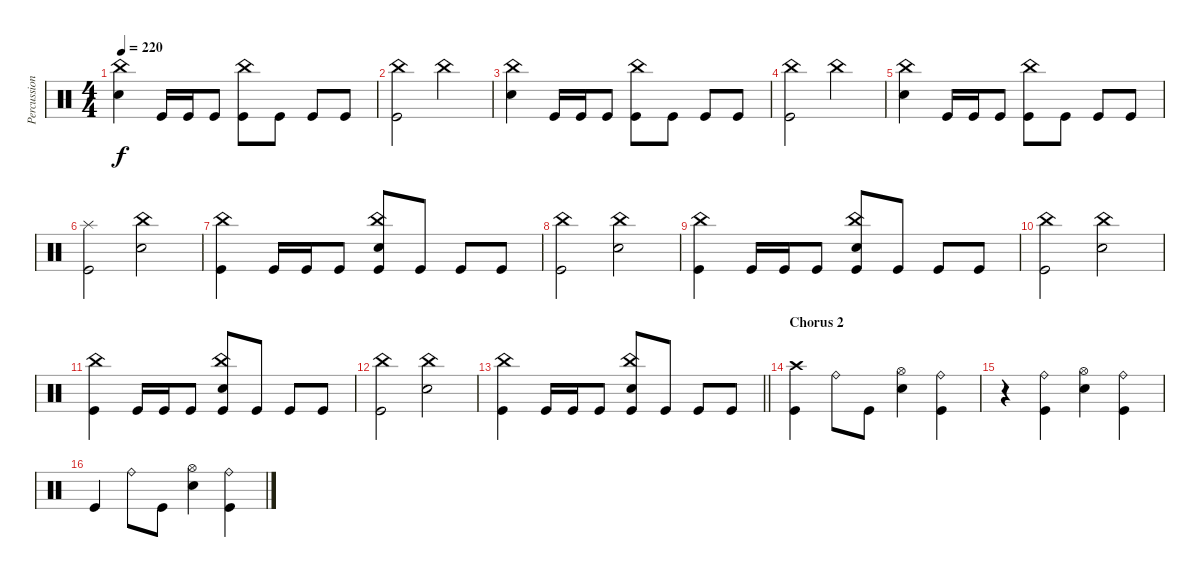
\track ("Percussion" "Percussion") {instrument percussion}
\staff {score}
\articulation defaults
\ts (4 4)
\tempo 220
\clef neutral
\ks c
("Snare (hit) 2" "China (hit)").4{dy f} "Kick (hit)".16 "Kick (hit)".16 "Kick (hit)".8 ("Kick (hit)" "China (hit)").8 "Kick (hit)".8 "Kick (hit)".8 "Kick (hit)".8 |
("Kick (hit)" "China (hit)").2 "China (hit)".2 |
("Snare (hit) 2" "China (hit)").4 "Kick (hit)".16 "Kick (hit)".16 "Kick (hit)".8 ("Kick (hit)" "China (hit)").8 "Kick (hit)".8 "Kick (hit)".8 "Kick (hit)".8 |
("Kick (hit)" "China (hit)").2 "China (hit)".2 |
("Snare (hit) 2" "China (hit)").4 "Kick (hit)".16 "Kick (hit)".16 "Kick (hit)".8 ("Kick (hit)" "China (hit)").8 "Kick (hit)".8 "Kick (hit)".8 "Kick (hit)".8 |
("Kick (hit)" "Splash (hit)").2 ("Snare (hit) 2" "China (hit)").2 |
("Kick (hit)" "China (hit)").4 "Kick (hit)".16 "Kick (hit)".16 "Kick (hit)".8 ("Kick (hit)" "Snare (hit) 2" "China (hit)").8 "Kick (hit)".8 "Kick (hit)".8 "Kick (hit)".8 |
("Kick (hit)" "China (hit)").2 ("Snare (hit) 2" "China (hit)").2 |
("Kick (hit)" "China (hit)").4 "Kick (hit)".16 "Kick (hit)".16 "Kick (hit)".8 ("Kick (hit)" "Snare (hit) 2" "China (hit)").8 "Kick (hit)".8 "Kick (hit)".8 "Kick (hit)".8 |
("Kick (hit)" "China (hit)").2 ("Snare (hit) 2" "China (hit)").2 |
("Kick (hit)" "China (hit)").4 "Kick (hit)".16 "Kick (hit)".16 "Kick (hit)".8 ("Kick (hit)" "Snare (hit) 2" "China (hit)").8 "Kick (hit)".8 "Kick (hit)".8 "Kick (hit)".8 |
("Kick (hit)" "China (hit)").2 ("Snare (hit) 2" "China (hit)").2 |
\barLineRight lightlight
("Kick (hit)" "China (hit)").4 "Kick (hit)".16 "Kick (hit)".16 "Kick (hit)".8 ("Kick (hit)" "Snare (hit) 2" "China (hit)").8 "Kick (hit)".8 "Kick (hit)".8 "Kick (hit)".8 |
\section ("" "Chorus 2")
("Kick (hit)" "Crash high (hit)").4 "Ride (bell)".8 "Kick (hit)".8 ("Snare (hit) 2" "Hi-Hat (open)").4 ("Kick (hit)" "Ride (bell)").4 |
r.4 ("Kick (hit)" "Ride (bell)").4 ("Snare (hit) 2" "Hi-Hat (open)").4 ("Kick (hit)" "Ride (bell)").4 |
"Kick (hit)".4 "Ride (bell)".8 "Kick (hit)".8 ("Snare (hit) 2" "Hi-Hat (open)").4 ("Kick (hit)" "Ride (bell)").4
